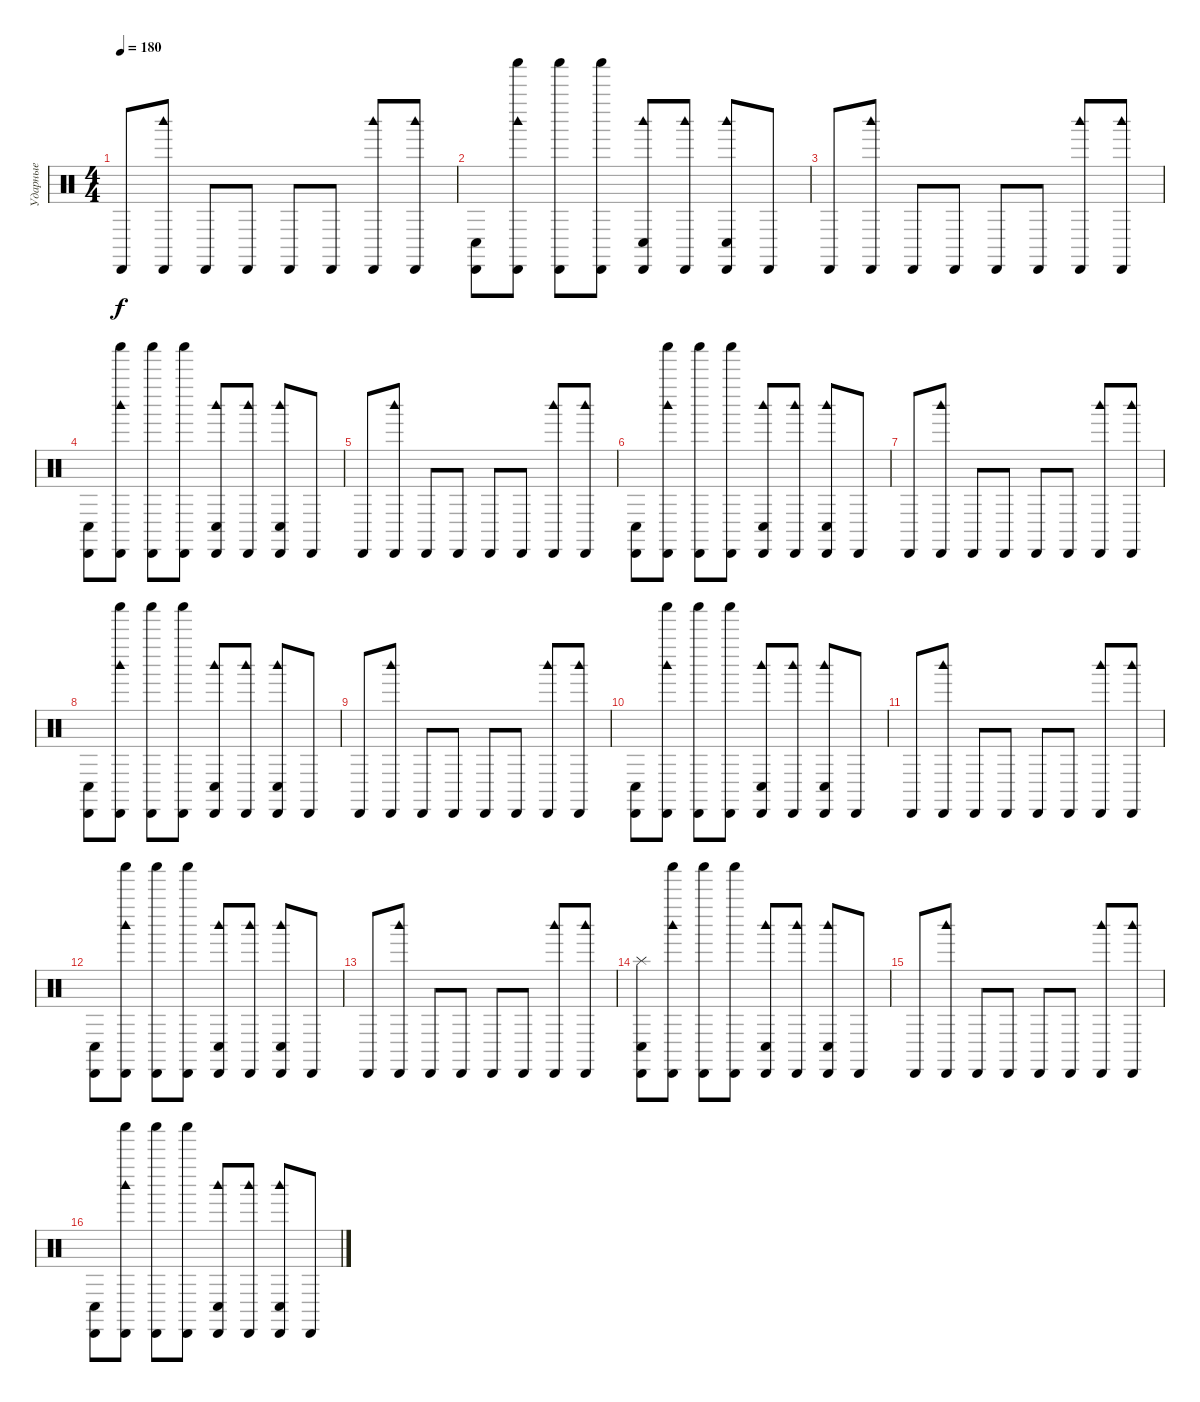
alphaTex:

\track ("Ударные" "Ударные") {instrument percussion}
\staff {score}
\articulation defaults
\ts (4 4)
\tempo 180
\clef neutral
\ks c "Cabasa (hit)".8{dy f}
("Woodblock high (hit)" "Cabasa (hit)").8 "Cabasa (hit)".8 "Cabasa (hit)".8 "Cabasa (hit)".8 "Cabasa (hit)".8 ("Woodblock high (hit)" "Cabasa (hit)").8 ("Woodblock high (hit)" "Cabasa (hit)").8 |
("Cabasa (hit)" "Conga low (hit)").8 ("Woodblock high (hit)" "Shaker (hit)" "Cabasa (hit)").8 ("Shaker (hit)" "Cabasa (hit)").8 ("Shaker (hit)" "Cabasa (hit)").8 ("Woodblock high (hit)" "Cabasa (hit)" "Conga low (hit)").8 ("Woodblock high (hit)" "Cabasa (hit)").8 ("Woodblock high (hit)" "Cabasa (hit)" "Conga low (hit)").8 "Cabasa (hit)".8 |
"Cabasa (hit)".8 ("Woodblock high (hit)" "Cabasa (hit)").8 "Cabasa (hit)".8 "Cabasa (hit)".8 "Cabasa (hit)".8 "Cabasa (hit)".8 ("Woodblock high (hit)" "Cabasa (hit)").8 ("Woodblock high (hit)" "Cabasa (hit)").8 |
("Cabasa (hit)" "Conga low (hit)").8 ("Woodblock high (hit)" "Shaker (hit)" "Cabasa (hit)").8 ("Shaker (hit)" "Cabasa (hit)").8 ("Shaker (hit)" "Cabasa (hit)").8 ("Woodblock high (hit)" "Cabasa (hit)" "Conga low (hit)").8 ("Woodblock high (hit)" "Cabasa (hit)").8 ("Woodblock high (hit)" "Cabasa (hit)" "Conga low (hit)").8 "Cabasa (hit)".8 |
"Cabasa (hit)".8 ("Woodblock high (hit)" "Cabasa (hit)").8 "Cabasa (hit)".8 "Cabasa (hit)".8 "Cabasa (hit)".8 "Cabasa (hit)".8 ("Woodblock high (hit)" "Cabasa (hit)").8 ("Woodblock high (hit)" "Cabasa (hit)").8 |
("Cabasa (hit)" "Conga low (hit)").8 ("Woodblock high (hit)" "Shaker (hit)" "Cabasa (hit)").8 ("Shaker (hit)" "Cabasa (hit)").8 ("Shaker (hit)" "Cabasa (hit)").8 ("Woodblock high (hit)" "Cabasa (hit)" "Conga low (hit)").8 ("Woodblock high (hit)" "Cabasa (hit)").8 ("Woodblock high (hit)" "Cabasa (hit)" "Conga low (hit)").8 "Cabasa (hit)".8 |
"Cabasa (hit)".8 ("Woodblock high (hit)" "Cabasa (hit)").8 "Cabasa (hit)".8 "Cabasa (hit)".8 "Cabasa (hit)".8 "Cabasa (hit)".8 ("Woodblock high (hit)" "Cabasa (hit)").8 ("Woodblock high (hit)" "Cabasa (hit)").8 |
("Cabasa (hit)" "Conga low (hit)").8 ("Woodblock high (hit)" "Shaker (hit)" "Cabasa (hit)").8 ("Shaker (hit)" "Cabasa (hit)").8 ("Shaker (hit)" "Cabasa (hit)").8 ("Woodblock high (hit)" "Cabasa (hit)" "Conga low (hit)").8 ("Woodblock high (hit)" "Cabasa (hit)").8 ("Woodblock high (hit)" "Cabasa (hit)" "Conga low (hit)").8 "Cabasa (hit)".8 |
"Cabasa (hit)".8 ("Woodblock high (hit)" "Cabasa (hit)").8 "Cabasa (hit)".8 "Cabasa (hit)".8 "Cabasa (hit)".8 "Cabasa (hit)".8 ("Woodblock high (hit)" "Cabasa (hit)").8 ("Woodblock high (hit)" "Cabasa (hit)").8 |
("Cabasa (hit)" "Conga low (hit)").8 ("Woodblock high (hit)" "Shaker (hit)" "Cabasa (hit)").8 ("Shaker (hit)" "Cabasa (hit)").8 ("Shaker (hit)" "Cabasa (hit)").8 ("Woodblock high (hit)" "Cabasa (hit)" "Conga low (hit)").8 ("Woodblock high (hit)" "Cabasa (hit)").8 ("Woodblock high (hit)" "Cabasa (hit)" "Conga low (hit)").8 "Cabasa (hit)".8 |
"Cabasa (hit)".8 ("Woodblock high (hit)" "Cabasa (hit)").8 "Cabasa (hit)".8 "Cabasa (hit)".8 "Cabasa (hit)".8 "Cabasa (hit)".8 ("Woodblock high (hit)" "Cabasa (hit)").8 ("Woodblock high (hit)" "Cabasa (hit)").8 |
("Cabasa (hit)" "Conga low (hit)").8 ("Woodblock high (hit)" "Shaker (hit)" "Cabasa (hit)").8 ("Shaker (hit)" "Cabasa (hit)").8 ("Shaker (hit)" "Cabasa (hit)").8 ("Woodblock high (hit)" "Cabasa (hit)" "Conga low (hit)").8 ("Woodblock high (hit)" "Cabasa (hit)").8 ("Woodblock high (hit)" "Cabasa (hit)" "Conga low (hit)").8 "Cabasa (hit)".8 |
"Cabasa (hit)".8 ("Woodblock high (hit)" "Cabasa (hit)").8 "Cabasa (hit)".8 "Cabasa (hit)".8 "Cabasa (hit)".8 "Cabasa (hit)".8 ("Woodblock high (hit)" "Cabasa (hit)").8 ("Woodblock high (hit)" "Cabasa (hit)").8 |
("Cabasa (hit)" "Splash (hit)" "Conga low (hit)").8 ("Woodblock high (hit)" "Shaker (hit)" "Cabasa (hit)").8 ("Shaker (hit)" "Cabasa (hit)").8 ("Shaker (hit)" "Cabasa (hit)").8 ("Woodblock high (hit)" "Cabasa (hit)" "Conga low (hit)").8 ("Woodblock high (hit)" "Cabasa (hit)").8 ("Woodblock high (hit)" "Cabasa (hit)" "Conga low (hit)").8 "Cabasa (hit)".8 |
"Cabasa (hit)".8 ("Woodblock high (hit)" "Cabasa (hit)").8 "Cabasa (hit)".8 "Cabasa (hit)".8 "Cabasa (hit)".8 "Cabasa (hit)".8 ("Woodblock high (hit)" "Cabasa (hit)").8 ("Woodblock high (hit)" "Cabasa (hit)").8 |
("Cabasa (hit)" "Conga low (hit)").8 ("Woodblock high (hit)" "Shaker (hit)" "Cabasa (hit)").8 ("Shaker (hit)" "Cabasa (hit)").8 ("Shaker (hit)" "Cabasa (hit)").8 ("Woodblock high (hit)" "Cabasa (hit)" "Conga low (hit)").8 ("Woodblock high (hit)" "Cabasa (hit)").8 ("Woodblock high (hit)" "Cabasa (hit)" "Conga low (hit)").8 "Cabasa (hit)".8
